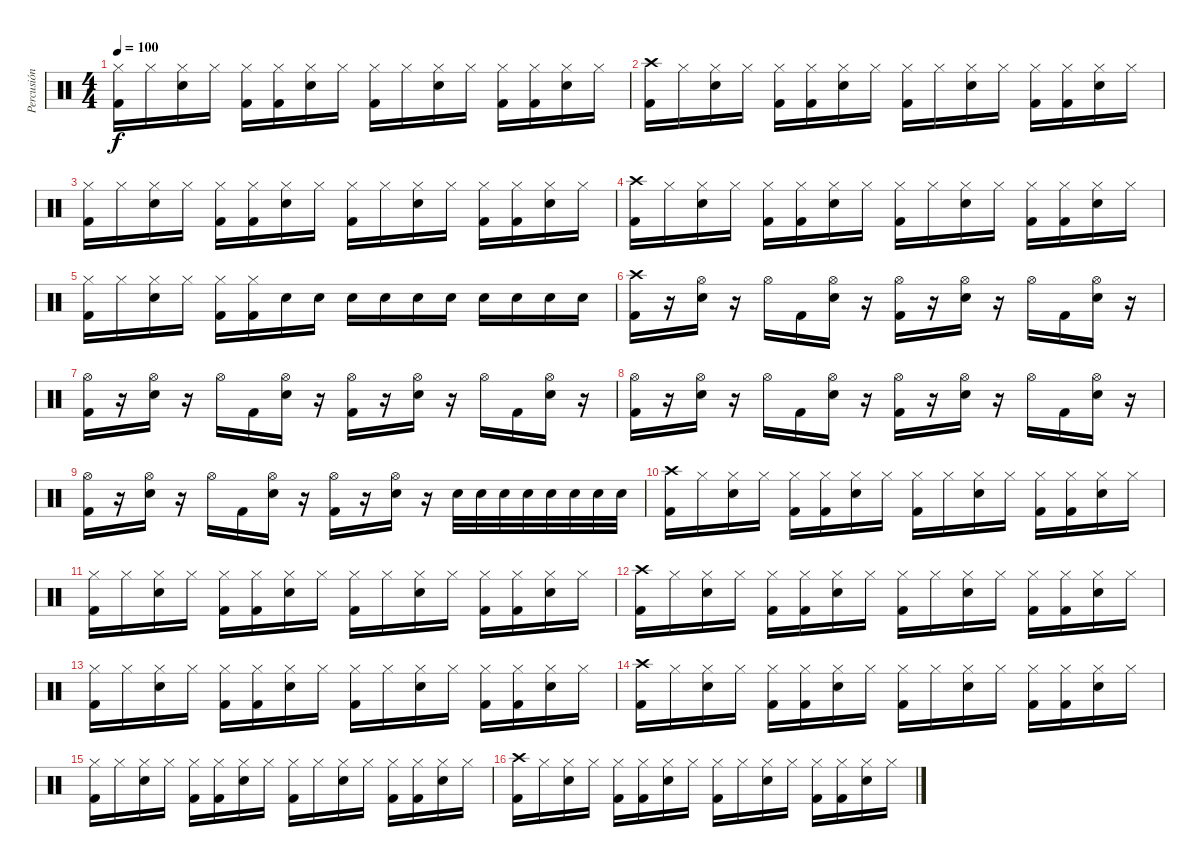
\track ("Percusión" "Percusión") {instrument percussion}
\staff {score}
\articulation defaults
\ts (4 4)
\tempo 100
\clef neutral
\ks c
("Hi-Hat (closed)" "Kick (hit) 2").16{dy f} "Hi-Hat (closed)".16 ("Hi-Hat (closed)" "Electric Snare (hit)").16 "Hi-Hat (closed)".16 ("Hi-Hat (closed)" "Kick (hit) 2").16 ("Hi-Hat (closed)" "Kick (hit) 2").16 ("Hi-Hat (closed)" "Electric Snare (hit)").16 "Hi-Hat (closed)".16 ("Hi-Hat (closed)" "Kick (hit) 2").16 "Hi-Hat (closed)".16 ("Hi-Hat (closed)" "Electric Snare (hit)").16 "Hi-Hat (closed)".16 ("Hi-Hat (closed)" "Kick (hit) 2").16 ("Hi-Hat (closed)" "Kick (hit) 2").16 ("Hi-Hat (closed)" "Electric Snare (hit)").16 "Hi-Hat (closed)".16 |
("Crash high (hit)" "Kick (hit) 2").16 "Hi-Hat (closed)".16 ("Hi-Hat (closed)" "Electric Snare (hit)").16 "Hi-Hat (closed)".16 ("Hi-Hat (closed)" "Kick (hit) 2").16 ("Hi-Hat (closed)" "Kick (hit) 2").16 ("Hi-Hat (closed)" "Electric Snare (hit)").16 "Hi-Hat (closed)".16 ("Hi-Hat (closed)" "Kick (hit) 2").16 "Hi-Hat (closed)".16 ("Hi-Hat (closed)" "Electric Snare (hit)").16 "Hi-Hat (closed)".16 ("Hi-Hat (closed)" "Kick (hit) 2").16 ("Hi-Hat (closed)" "Kick (hit) 2").16 ("Hi-Hat (closed)" "Electric Snare (hit)").16 "Hi-Hat (closed)".16 |
("Hi-Hat (closed)" "Kick (hit) 2").16 "Hi-Hat (closed)".16 ("Hi-Hat (closed)" "Electric Snare (hit)").16 "Hi-Hat (closed)".16 ("Hi-Hat (closed)" "Kick (hit) 2").16 ("Hi-Hat (closed)" "Kick (hit) 2").16 ("Hi-Hat (closed)" "Electric Snare (hit)").16 "Hi-Hat (closed)".16 ("Hi-Hat (closed)" "Kick (hit) 2").16 "Hi-Hat (closed)".16 ("Hi-Hat (closed)" "Electric Snare (hit)").16 "Hi-Hat (closed)".16 ("Hi-Hat (closed)" "Kick (hit) 2").16 ("Hi-Hat (closed)" "Kick (hit) 2").16 ("Hi-Hat (closed)" "Electric Snare (hit)").16 "Hi-Hat (closed)".16 |
("Crash high (hit)" "Kick (hit) 2").16 "Hi-Hat (closed)".16 ("Hi-Hat (closed)" "Electric Snare (hit)").16 "Hi-Hat (closed)".16 ("Hi-Hat (closed)" "Kick (hit) 2").16 ("Hi-Hat (closed)" "Kick (hit) 2").16 ("Hi-Hat (closed)" "Electric Snare (hit)").16 "Hi-Hat (closed)".16 ("Hi-Hat (closed)" "Kick (hit) 2").16 "Hi-Hat (closed)".16 ("Hi-Hat (closed)" "Electric Snare (hit)").16 "Hi-Hat (closed)".16 ("Hi-Hat (closed)" "Kick (hit) 2").16 ("Hi-Hat (closed)" "Kick (hit) 2").16 ("Hi-Hat (closed)" "Electric Snare (hit)").16 "Hi-Hat (closed)".16 |
("Hi-Hat (closed)" "Kick (hit) 2").16 "Hi-Hat (closed)".16 ("Hi-Hat (closed)" "Electric Snare (hit)").16 "Hi-Hat (closed)".16 ("Hi-Hat (closed)" "Kick (hit) 2").16 ("Hi-Hat (closed)" "Kick (hit) 2").16 "Electric Snare (hit)".16 "Electric Snare (hit)".16 "Electric Snare (hit)".16 "Electric Snare (hit)".16 "Electric Snare (hit)".16 "Electric Snare (hit)".16 "Electric Snare (hit)".16 "Electric Snare (hit)".16 "Electric Snare (hit)".16 "Electric Snare (hit)".16 |
("Crash high (hit)" "Kick (hit) 2").16 r.16 ("Hi-Hat (open)" "Electric Snare (hit)").16 r.16 "Hi-Hat (open)".16 "Kick (hit) 2".16 ("Hi-Hat (open)" "Electric Snare (hit)").16 r.16 ("Hi-Hat (open)" "Kick (hit) 2").16 r.16 ("Hi-Hat (open)" "Electric Snare (hit)").16 r.16 "Hi-Hat (open)".16 "Kick (hit) 2".16 ("Hi-Hat (open)" "Electric Snare (hit)").16 r.16 |
("Hi-Hat (open)" "Kick (hit) 2").16 r.16 ("Hi-Hat (open)" "Electric Snare (hit)").16 r.16 "Hi-Hat (open)".16 "Kick (hit) 2".16 ("Hi-Hat (open)" "Electric Snare (hit)").16 r.16 ("Hi-Hat (open)" "Kick (hit) 2").16 r.16 ("Hi-Hat (open)" "Electric Snare (hit)").16 r.16 "Hi-Hat (open)".16 "Kick (hit) 2".16 ("Hi-Hat (open)" "Electric Snare (hit)").16 r.16 |
("Hi-Hat (open)" "Kick (hit) 2").16 r.16 ("Hi-Hat (open)" "Electric Snare (hit)").16 r.16 "Hi-Hat (open)".16 "Kick (hit) 2".16 ("Hi-Hat (open)" "Electric Snare (hit)").16 r.16 ("Hi-Hat (open)" "Kick (hit) 2").16 r.16 ("Hi-Hat (open)" "Electric Snare (hit)").16 r.16 "Hi-Hat (open)".16 "Kick (hit) 2".16 ("Hi-Hat (open)" "Electric Snare (hit)").16 r.16 |
("Hi-Hat (open)" "Kick (hit) 2").16 r.16 ("Hi-Hat (open)" "Electric Snare (hit)").16 r.16 "Hi-Hat (open)".16 "Kick (hit) 2".16 ("Hi-Hat (open)" "Electric Snare (hit)").16 r.16 ("Hi-Hat (open)" "Kick (hit) 2").16 r.16 ("Hi-Hat (open)" "Electric Snare (hit)").16 r.16 "Electric Snare (hit)".32 "Electric Snare (hit)".32 "Electric Snare (hit)".32 "Electric Snare (hit)".32 "Electric Snare (hit)".32 "Electric Snare (hit)".32 "Electric Snare (hit)".32 "Electric Snare (hit)".32 |
("Crash high (hit)" "Kick (hit) 2").16 "Hi-Hat (closed)".16 ("Hi-Hat (closed)" "Electric Snare (hit)").16 "Hi-Hat (closed)".16 ("Hi-Hat (closed)" "Kick (hit) 2").16 ("Hi-Hat (closed)" "Kick (hit) 2").16 ("Hi-Hat (closed)" "Electric Snare (hit)").16 "Hi-Hat (closed)".16 ("Hi-Hat (closed)" "Kick (hit) 2").16 "Hi-Hat (closed)".16 ("Hi-Hat (closed)" "Electric Snare (hit)").16 "Hi-Hat (closed)".16 ("Hi-Hat (closed)" "Kick (hit) 2").16 ("Hi-Hat (closed)" "Kick (hit) 2").16 ("Hi-Hat (closed)" "Electric Snare (hit)").16 "Hi-Hat (closed)".16 |
("Hi-Hat (closed)" "Kick (hit) 2").16 "Hi-Hat (closed)".16 ("Hi-Hat (closed)" "Electric Snare (hit)").16 "Hi-Hat (closed)".16 ("Hi-Hat (closed)" "Kick (hit) 2").16 ("Hi-Hat (closed)" "Kick (hit) 2").16 ("Hi-Hat (closed)" "Electric Snare (hit)").16 "Hi-Hat (closed)".16 ("Hi-Hat (closed)" "Kick (hit) 2").16 "Hi-Hat (closed)".16 ("Hi-Hat (closed)" "Electric Snare (hit)").16 "Hi-Hat (closed)".16 ("Hi-Hat (closed)" "Kick (hit) 2").16 ("Hi-Hat (closed)" "Kick (hit) 2").16 ("Hi-Hat (closed)" "Electric Snare (hit)").16 "Hi-Hat (closed)".16 |
("Crash high (hit)" "Kick (hit) 2").16 "Hi-Hat (closed)".16 ("Hi-Hat (closed)" "Electric Snare (hit)").16 "Hi-Hat (closed)".16 ("Hi-Hat (closed)" "Kick (hit) 2").16 ("Hi-Hat (closed)" "Kick (hit) 2").16 ("Hi-Hat (closed)" "Electric Snare (hit)").16 "Hi-Hat (closed)".16 ("Hi-Hat (closed)" "Kick (hit) 2").16 "Hi-Hat (closed)".16 ("Hi-Hat (closed)" "Electric Snare (hit)").16 "Hi-Hat (closed)".16 ("Hi-Hat (closed)" "Kick (hit) 2").16 ("Hi-Hat (closed)" "Kick (hit) 2").16 ("Hi-Hat (closed)" "Electric Snare (hit)").16 "Hi-Hat (closed)".16 |
("Hi-Hat (closed)" "Kick (hit) 2").16 "Hi-Hat (closed)".16 ("Hi-Hat (closed)" "Electric Snare (hit)").16 "Hi-Hat (closed)".16 ("Hi-Hat (closed)" "Kick (hit) 2").16 ("Hi-Hat (closed)" "Kick (hit) 2").16 ("Hi-Hat (closed)" "Electric Snare (hit)").16 "Hi-Hat (closed)".16 ("Hi-Hat (closed)" "Kick (hit) 2").16 "Hi-Hat (closed)".16 ("Hi-Hat (closed)" "Electric Snare (hit)").16 "Hi-Hat (closed)".16 ("Hi-Hat (closed)" "Kick (hit) 2").16 ("Hi-Hat (closed)" "Kick (hit) 2").16 ("Hi-Hat (closed)" "Electric Snare (hit)").16 "Hi-Hat (closed)".16 |
("Crash high (hit)" "Kick (hit) 2").16 "Hi-Hat (closed)".16 ("Hi-Hat (closed)" "Electric Snare (hit)").16 "Hi-Hat (closed)".16 ("Hi-Hat (closed)" "Kick (hit) 2").16 ("Hi-Hat (closed)" "Kick (hit) 2").16 ("Hi-Hat (closed)" "Electric Snare (hit)").16 "Hi-Hat (closed)".16 ("Hi-Hat (closed)" "Kick (hit) 2").16 "Hi-Hat (closed)".16 ("Hi-Hat (closed)" "Electric Snare (hit)").16 "Hi-Hat (closed)".16 ("Hi-Hat (closed)" "Kick (hit) 2").16 ("Hi-Hat (closed)" "Kick (hit) 2").16 ("Hi-Hat (closed)" "Electric Snare (hit)").16 "Hi-Hat (closed)".16 |
("Hi-Hat (closed)" "Kick (hit) 2").16 "Hi-Hat (closed)".16 ("Hi-Hat (closed)" "Electric Snare (hit)").16 "Hi-Hat (closed)".16 ("Hi-Hat (closed)" "Kick (hit) 2").16 ("Hi-Hat (closed)" "Kick (hit) 2").16 ("Hi-Hat (closed)" "Electric Snare (hit)").16 "Hi-Hat (closed)".16 ("Hi-Hat (closed)" "Kick (hit) 2").16 "Hi-Hat (closed)".16 ("Hi-Hat (closed)" "Electric Snare (hit)").16 "Hi-Hat (closed)".16 ("Hi-Hat (closed)" "Kick (hit) 2").16 ("Hi-Hat (closed)" "Kick (hit) 2").16 ("Hi-Hat (closed)" "Electric Snare (hit)").16 "Hi-Hat (closed)".16 |
("Crash high (hit)" "Kick (hit) 2").16 "Hi-Hat (closed)".16 ("Hi-Hat (closed)" "Electric Snare (hit)").16 "Hi-Hat (closed)".16 ("Hi-Hat (closed)" "Kick (hit) 2").16 ("Hi-Hat (closed)" "Kick (hit) 2").16 ("Hi-Hat (closed)" "Electric Snare (hit)").16 "Hi-Hat (closed)".16 ("Hi-Hat (closed)" "Kick (hit) 2").16 "Hi-Hat (closed)".16 ("Hi-Hat (closed)" "Electric Snare (hit)").16 "Hi-Hat (closed)".16 ("Hi-Hat (closed)" "Kick (hit) 2").16 ("Hi-Hat (closed)" "Kick (hit) 2").16 ("Hi-Hat (closed)" "Electric Snare (hit)").16 "Hi-Hat (closed)".16
